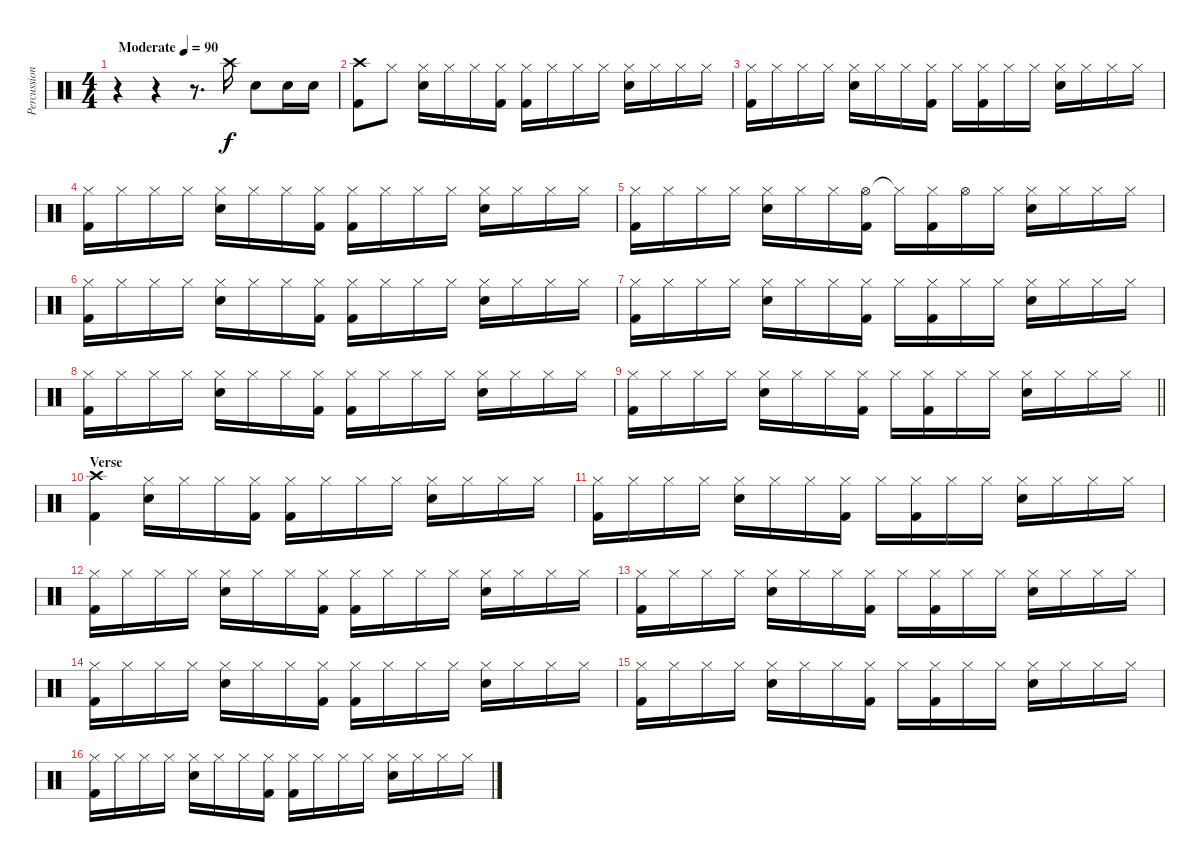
\track ("Percussion" "Percussion") {instrument percussion}
\staff {score}
\articulation defaults
\ts (4 4)
\tempo (90 "Moderate")
\clef neutral
\ks c
r.4{dy f} r.4 r.8{d} "Crash high (hit)".16 "Electric Snare (hit)".8 "Electric Snare (hit)".16 "Electric Snare (hit)".16 |
("Crash high (hit)" "Kick (hit) 2").8 "Hi-Hat (closed)".8 ("Hi-Hat (closed)" "Electric Snare (hit)").16 "Hi-Hat (closed)".16 "Hi-Hat (closed)".16 ("Hi-Hat (closed)" "Kick (hit) 2").16 ("Hi-Hat (closed)" "Kick (hit) 2").16 "Hi-Hat (closed)".16 "Hi-Hat (closed)".16 "Hi-Hat (closed)".16 ("Hi-Hat (closed)" "Electric Snare (hit)").16 "Hi-Hat (closed)".16 "Hi-Hat (closed)".16 "Hi-Hat (closed)".16 |
("Hi-Hat (closed)" "Kick (hit) 2").16 "Hi-Hat (closed)".16 "Hi-Hat (closed)".16 "Hi-Hat (closed)".16 ("Hi-Hat (closed)" "Electric Snare (hit)").16 "Hi-Hat (closed)".16 "Hi-Hat (closed)".16 ("Hi-Hat (closed)" "Kick (hit) 2").16 "Hi-Hat (closed)".16 ("Hi-Hat (closed)" "Kick (hit) 2").16 "Hi-Hat (closed)".16 "Hi-Hat (closed)".16 ("Hi-Hat (closed)" "Electric Snare (hit)").16 "Hi-Hat (closed)".16 "Hi-Hat (closed)".16 "Hi-Hat (closed)".16 |
("Hi-Hat (closed)" "Kick (hit) 2").16 "Hi-Hat (closed)".16 "Hi-Hat (closed)".16 "Hi-Hat (closed)".16 ("Hi-Hat (closed)" "Electric Snare (hit)").16 "Hi-Hat (closed)".16 "Hi-Hat (closed)".16 ("Hi-Hat (closed)" "Kick (hit) 2").16 ("Hi-Hat (closed)" "Kick (hit) 2").16 "Hi-Hat (closed)".16 "Hi-Hat (closed)".16 "Hi-Hat (closed)".16 ("Hi-Hat (closed)" "Electric Snare (hit)").16 "Hi-Hat (closed)".16 "Hi-Hat (closed)".16 "Hi-Hat (closed)".16 |
("Hi-Hat (closed)" "Kick (hit) 2").16 "Hi-Hat (closed)".16 "Hi-Hat (closed)".16 "Hi-Hat (closed)".16 ("Hi-Hat (closed)" "Electric Snare (hit)").16 "Hi-Hat (closed)".16 "Hi-Hat (closed)".16 ("Hi-Hat (open)" "Kick (hit) 2").16 "Hi-Hat (closed)"{t}.16 ("Hi-Hat (closed)" "Kick (hit) 2").16 "Hi-Hat (open)".16 "Hi-Hat (closed)".16 ("Hi-Hat (closed)" "Electric Snare (hit)").16 "Hi-Hat (closed)".16 "Hi-Hat (closed)".16 "Hi-Hat (closed)".16 |
("Hi-Hat (closed)" "Kick (hit) 2").16 "Hi-Hat (closed)".16 "Hi-Hat (closed)".16 "Hi-Hat (closed)".16 ("Hi-Hat (closed)" "Electric Snare (hit)").16 "Hi-Hat (closed)".16 "Hi-Hat (closed)".16 ("Hi-Hat (closed)" "Kick (hit) 2").16 ("Hi-Hat (closed)" "Kick (hit) 2").16 "Hi-Hat (closed)".16 "Hi-Hat (closed)".16 "Hi-Hat (closed)".16 ("Hi-Hat (closed)" "Electric Snare (hit)").16 "Hi-Hat (closed)".16 "Hi-Hat (closed)".16 "Hi-Hat (closed)".16 |
("Hi-Hat (closed)" "Kick (hit) 2").16 "Hi-Hat (closed)".16 "Hi-Hat (closed)".16 "Hi-Hat (closed)".16 ("Hi-Hat (closed)" "Electric Snare (hit)").16 "Hi-Hat (closed)".16 "Hi-Hat (closed)".16 ("Hi-Hat (closed)" "Kick (hit) 2").16 "Hi-Hat (closed)".16 ("Hi-Hat (closed)" "Kick (hit) 2").16 "Hi-Hat (closed)".16 "Hi-Hat (closed)".16 ("Hi-Hat (closed)" "Electric Snare (hit)").16 "Hi-Hat (closed)".16 "Hi-Hat (closed)".16 "Hi-Hat (closed)".16 |
("Hi-Hat (closed)" "Kick (hit) 2").16 "Hi-Hat (closed)".16 "Hi-Hat (closed)".16 "Hi-Hat (closed)".16 ("Hi-Hat (closed)" "Electric Snare (hit)").16 "Hi-Hat (closed)".16 "Hi-Hat (closed)".16 ("Hi-Hat (closed)" "Kick (hit) 2").16 ("Hi-Hat (closed)" "Kick (hit) 2").16 "Hi-Hat (closed)".16 "Hi-Hat (closed)".16 "Hi-Hat (closed)".16 ("Hi-Hat (closed)" "Electric Snare (hit)").16 "Hi-Hat (closed)".16 "Hi-Hat (closed)".16 "Hi-Hat (closed)".16 |
\barLineRight lightlight
("Hi-Hat (closed)" "Kick (hit) 2").16 "Hi-Hat (closed)".16 "Hi-Hat (closed)".16 "Hi-Hat (closed)".16 ("Hi-Hat (closed)" "Electric Snare (hit)").16 "Hi-Hat (closed)".16 "Hi-Hat (closed)".16 ("Hi-Hat (closed)" "Kick (hit) 2").16 "Hi-Hat (closed)".16 ("Hi-Hat (closed)" "Kick (hit) 2").16 "Hi-Hat (closed)".16 "Hi-Hat (closed)".16 ("Hi-Hat (closed)" "Electric Snare (hit)").16 "Hi-Hat (closed)".16 "Hi-Hat (closed)".16 "Hi-Hat (closed)".16 |
\section ("" "Verse")
("Crash high (hit)" "Kick (hit) 2").4 ("Hi-Hat (closed)" "Electric Snare (hit)").16 "Hi-Hat (closed)".16 "Hi-Hat (closed)".16 ("Hi-Hat (closed)" "Kick (hit) 2").16 ("Hi-Hat (closed)" "Kick (hit) 2").16 "Hi-Hat (closed)".16 "Hi-Hat (closed)".16 "Hi-Hat (closed)".16 ("Hi-Hat (closed)" "Electric Snare (hit)").16 "Hi-Hat (closed)".16 "Hi-Hat (closed)".16 "Hi-Hat (closed)".16 |
("Hi-Hat (closed)" "Kick (hit) 2").16 "Hi-Hat (closed)".16 "Hi-Hat (closed)".16 "Hi-Hat (closed)".16 ("Hi-Hat (closed)" "Electric Snare (hit)").16 "Hi-Hat (closed)".16 "Hi-Hat (closed)".16 ("Hi-Hat (closed)" "Kick (hit) 2").16 "Hi-Hat (closed)".16 ("Hi-Hat (closed)" "Kick (hit) 2").16 "Hi-Hat (closed)".16 "Hi-Hat (closed)".16 ("Hi-Hat (closed)" "Electric Snare (hit)").16 "Hi-Hat (closed)".16 "Hi-Hat (closed)".16 "Hi-Hat (closed)".16 |
("Hi-Hat (closed)" "Kick (hit) 2").16 "Hi-Hat (closed)".16 "Hi-Hat (closed)".16 "Hi-Hat (closed)".16 ("Hi-Hat (closed)" "Electric Snare (hit)").16 "Hi-Hat (closed)".16 "Hi-Hat (closed)".16 ("Hi-Hat (closed)" "Kick (hit) 2").16 ("Hi-Hat (closed)" "Kick (hit) 2").16 "Hi-Hat (closed)".16 "Hi-Hat (closed)".16 "Hi-Hat (closed)".16 ("Hi-Hat (closed)" "Electric Snare (hit)").16 "Hi-Hat (closed)".16 "Hi-Hat (closed)".16 "Hi-Hat (closed)".16 |
("Hi-Hat (closed)" "Kick (hit) 2").16 "Hi-Hat (closed)".16 "Hi-Hat (closed)".16 "Hi-Hat (closed)".16 ("Hi-Hat (closed)" "Electric Snare (hit)").16 "Hi-Hat (closed)".16 "Hi-Hat (closed)".16 ("Hi-Hat (closed)" "Kick (hit) 2").16 "Hi-Hat (closed)".16 ("Hi-Hat (closed)" "Kick (hit) 2").16 "Hi-Hat (closed)".16 "Hi-Hat (closed)".16 ("Hi-Hat (closed)" "Electric Snare (hit)").16 "Hi-Hat (closed)".16 "Hi-Hat (closed)".16 "Hi-Hat (closed)".16 |
("Hi-Hat (closed)" "Kick (hit) 2").16 "Hi-Hat (closed)".16 "Hi-Hat (closed)".16 "Hi-Hat (closed)".16 ("Hi-Hat (closed)" "Electric Snare (hit)").16 "Hi-Hat (closed)".16 "Hi-Hat (closed)".16 ("Hi-Hat (closed)" "Kick (hit) 2").16 ("Hi-Hat (closed)" "Kick (hit) 2").16 "Hi-Hat (closed)".16 "Hi-Hat (closed)".16 "Hi-Hat (closed)".16 ("Hi-Hat (closed)" "Electric Snare (hit)").16 "Hi-Hat (closed)".16 "Hi-Hat (closed)".16 "Hi-Hat (closed)".16 |
("Hi-Hat (closed)" "Kick (hit) 2").16 "Hi-Hat (closed)".16 "Hi-Hat (closed)".16 "Hi-Hat (closed)".16 ("Hi-Hat (closed)" "Electric Snare (hit)").16 "Hi-Hat (closed)".16 "Hi-Hat (closed)".16 ("Hi-Hat (closed)" "Kick (hit) 2").16 "Hi-Hat (closed)".16 ("Hi-Hat (closed)" "Kick (hit) 2").16 "Hi-Hat (closed)".16 "Hi-Hat (closed)".16 ("Hi-Hat (closed)" "Electric Snare (hit)").16 "Hi-Hat (closed)".16 "Hi-Hat (closed)".16 "Hi-Hat (closed)".16 |
("Hi-Hat (closed)" "Kick (hit) 2").16 "Hi-Hat (closed)".16 "Hi-Hat (closed)".16 "Hi-Hat (closed)".16 ("Hi-Hat (closed)" "Electric Snare (hit)").16 "Hi-Hat (closed)".16 "Hi-Hat (closed)".16 ("Hi-Hat (closed)" "Kick (hit) 2").16 ("Hi-Hat (closed)" "Kick (hit) 2").16 "Hi-Hat (closed)".16 "Hi-Hat (closed)".16 "Hi-Hat (closed)".16 ("Hi-Hat (closed)" "Electric Snare (hit)").16 "Hi-Hat (closed)".16 "Hi-Hat (closed)".16 "Hi-Hat (closed)".16
